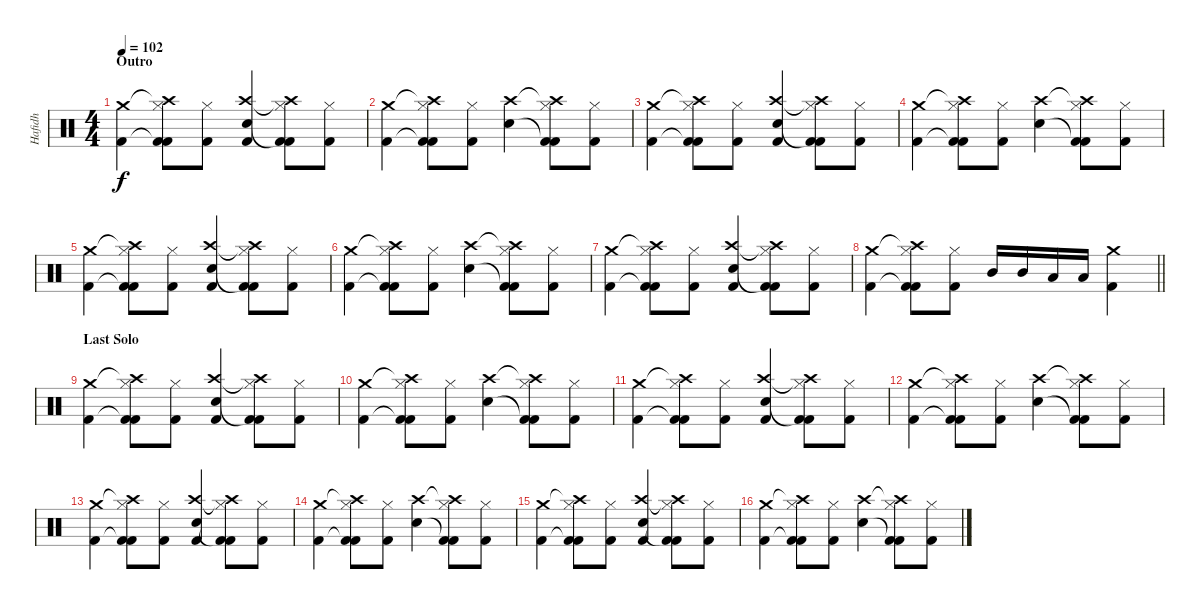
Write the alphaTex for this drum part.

\track ("Hafidh" "Hafidh") {instrument percussion}
\staff {score}
\articulation defaults
\ts (4 4)
\section ("" "Outro")
\tempo 102
\clef neutral
\ks c
("Crash medium (hit)" "Kick (hit) 2").4{dy f} ("Crash high (hit)"{t} "Kick (hit) 2"{t} "Hi-Hat (closed)" "Kick (hit) 2").8 ("Hi-Hat (closed)" "Kick (hit) 2").8 ("Crash high (hit)" "Electric Snare (hit)" "Kick (hit) 2").4 ("Crash high (hit)"{t} "Kick (hit) 2"{t} "Hi-Hat (closed)" "Kick (hit) 2").8 ("Hi-Hat (closed)" "Kick (hit) 2").8 |
("Crash medium (hit)" "Kick (hit) 2").4 ("Crash high (hit)"{t} "Kick (hit) 2"{t} "Hi-Hat (closed)" "Kick (hit) 2").8 ("Hi-Hat (closed)" "Kick (hit) 2").8 ("Crash high (hit)" "Electric Snare (hit)").4 ("Crash high (hit)"{t} "Kick (hit) 2"{t} "Hi-Hat (closed)" "Kick (hit) 2").8 ("Hi-Hat (closed)" "Kick (hit) 2").8 |
("Crash medium (hit)" "Kick (hit) 2").4 ("Crash high (hit)"{t} "Kick (hit) 2"{t} "Hi-Hat (closed)" "Kick (hit) 2").8 ("Hi-Hat (closed)" "Kick (hit) 2").8 ("Crash high (hit)" "Electric Snare (hit)" "Kick (hit) 2").4 ("Crash high (hit)"{t} "Kick (hit) 2"{t} "Hi-Hat (closed)" "Kick (hit) 2").8 ("Hi-Hat (closed)" "Kick (hit) 2").8 |
("Crash medium (hit)" "Kick (hit) 2").4 ("Crash high (hit)"{t} "Kick (hit) 2"{t} "Hi-Hat (closed)" "Kick (hit) 2").8 ("Hi-Hat (closed)" "Kick (hit) 2").8 ("Crash high (hit)" "Electric Snare (hit)").4 ("Crash high (hit)"{t} "Kick (hit) 2"{t} "Hi-Hat (closed)" "Kick (hit) 2").8 ("Hi-Hat (closed)" "Kick (hit) 2").8 |
("Crash medium (hit)" "Kick (hit) 2").4 ("Crash high (hit)"{t} "Kick (hit) 2"{t} "Hi-Hat (closed)" "Kick (hit) 2").8 ("Hi-Hat (closed)" "Kick (hit) 2").8 ("Crash high (hit)" "Electric Snare (hit)" "Kick (hit) 2").4 ("Crash high (hit)"{t} "Kick (hit) 2"{t} "Hi-Hat (closed)" "Kick (hit) 2").8 ("Hi-Hat (closed)" "Kick (hit) 2").8 |
("Crash medium (hit)" "Kick (hit) 2").4 ("Crash high (hit)"{t} "Kick (hit) 2"{t} "Hi-Hat (closed)" "Kick (hit) 2").8 ("Hi-Hat (closed)" "Kick (hit) 2").8 ("Crash high (hit)" "Electric Snare (hit)").4 ("Crash high (hit)"{t} "Kick (hit) 2"{t} "Hi-Hat (closed)" "Kick (hit) 2").8 ("Hi-Hat (closed)" "Kick (hit) 2").8 |
("Crash medium (hit)" "Kick (hit) 2").4 ("Crash high (hit)"{t} "Kick (hit) 2"{t} "Hi-Hat (closed)" "Kick (hit) 2").8 ("Hi-Hat (closed)" "Kick (hit) 2").8 ("Crash high (hit)" "Electric Snare (hit)" "Kick (hit) 2").4 ("Crash high (hit)"{t} "Kick (hit) 2"{t} "Hi-Hat (closed)" "Kick (hit) 2").8 ("Hi-Hat (closed)" "Kick (hit) 2").8 |
\barLineRight lightlight
("Crash medium (hit)" "Kick (hit) 2").4 ("Crash high (hit)"{t} "Kick (hit) 2"{t} "Hi-Hat (closed)" "Kick (hit) 2").8 ("Hi-Hat (closed)" "Kick (hit) 2").8 "Mid Tom (hit)".16 "Mid Tom (hit)".16 "Low Tom (hit)".16 "Low Tom (hit)".16 ("Crash medium (hit)" "Kick (hit) 2").4 |
\section ("" "Last Solo")
("Crash medium (hit)" "Kick (hit) 2").4 ("Crash high (hit)"{t} "Kick (hit) 2"{t} "Hi-Hat (closed)" "Kick (hit) 2").8 ("Hi-Hat (closed)" "Kick (hit) 2").8 ("Crash high (hit)" "Electric Snare (hit)" "Kick (hit) 2").4 ("Crash high (hit)"{t} "Kick (hit) 2"{t} "Hi-Hat (closed)" "Kick (hit) 2").8 ("Hi-Hat (closed)" "Kick (hit) 2").8 |
("Crash medium (hit)" "Kick (hit) 2").4 ("Crash high (hit)"{t} "Kick (hit) 2"{t} "Hi-Hat (closed)" "Kick (hit) 2").8 ("Hi-Hat (closed)" "Kick (hit) 2").8 ("Crash high (hit)" "Electric Snare (hit)").4 ("Crash high (hit)"{t} "Kick (hit) 2"{t} "Hi-Hat (closed)" "Kick (hit) 2").8 ("Hi-Hat (closed)" "Kick (hit) 2").8 |
("Crash medium (hit)" "Kick (hit) 2").4 ("Crash high (hit)"{t} "Kick (hit) 2"{t} "Hi-Hat (closed)" "Kick (hit) 2").8 ("Hi-Hat (closed)" "Kick (hit) 2").8 ("Crash high (hit)" "Electric Snare (hit)" "Kick (hit) 2").4 ("Crash high (hit)"{t} "Kick (hit) 2"{t} "Hi-Hat (closed)" "Kick (hit) 2").8 ("Hi-Hat (closed)" "Kick (hit) 2").8 |
("Crash medium (hit)" "Kick (hit) 2").4 ("Crash high (hit)"{t} "Kick (hit) 2"{t} "Hi-Hat (closed)" "Kick (hit) 2").8 ("Hi-Hat (closed)" "Kick (hit) 2").8 ("Crash high (hit)" "Electric Snare (hit)").4 ("Crash high (hit)"{t} "Kick (hit) 2"{t} "Hi-Hat (closed)" "Kick (hit) 2").8 ("Hi-Hat (closed)" "Kick (hit) 2").8 |
("Crash medium (hit)" "Kick (hit) 2").4 ("Crash high (hit)"{t} "Kick (hit) 2"{t} "Hi-Hat (closed)" "Kick (hit) 2").8 ("Hi-Hat (closed)" "Kick (hit) 2").8 ("Crash high (hit)" "Electric Snare (hit)" "Kick (hit) 2").4 ("Crash high (hit)"{t} "Kick (hit) 2"{t} "Hi-Hat (closed)" "Kick (hit) 2").8 ("Hi-Hat (closed)" "Kick (hit) 2").8 |
("Crash medium (hit)" "Kick (hit) 2").4 ("Crash high (hit)"{t} "Kick (hit) 2"{t} "Hi-Hat (closed)" "Kick (hit) 2").8 ("Hi-Hat (closed)" "Kick (hit) 2").8 ("Crash high (hit)" "Electric Snare (hit)").4 ("Crash high (hit)"{t} "Kick (hit) 2"{t} "Hi-Hat (closed)" "Kick (hit) 2").8 ("Hi-Hat (closed)" "Kick (hit) 2").8 |
("Crash medium (hit)" "Kick (hit) 2").4 ("Crash high (hit)"{t} "Kick (hit) 2"{t} "Hi-Hat (closed)" "Kick (hit) 2").8 ("Hi-Hat (closed)" "Kick (hit) 2").8 ("Crash high (hit)" "Electric Snare (hit)" "Kick (hit) 2").4 ("Crash high (hit)"{t} "Kick (hit) 2"{t} "Hi-Hat (closed)" "Kick (hit) 2").8 ("Hi-Hat (closed)" "Kick (hit) 2").8 |
("Crash medium (hit)" "Kick (hit) 2").4 ("Crash high (hit)"{t} "Kick (hit) 2"{t} "Hi-Hat (closed)" "Kick (hit) 2").8 ("Hi-Hat (closed)" "Kick (hit) 2").8 ("Crash high (hit)" "Electric Snare (hit)").4 ("Crash high (hit)"{t} "Kick (hit) 2"{t} "Hi-Hat (closed)" "Kick (hit) 2").8 ("Hi-Hat (closed)" "Kick (hit) 2").8
